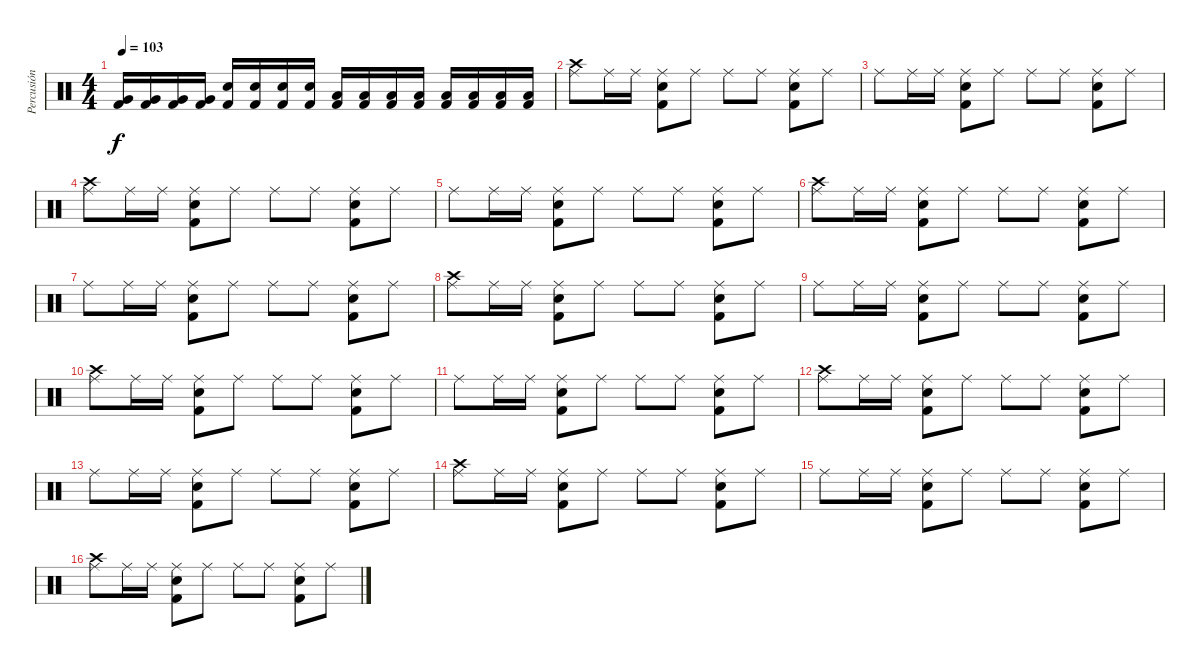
\track ("Percusión" "Percusión") {instrument percussion}
\staff {score}
\articulation defaults
\ts (4 4)
\tempo 103
\clef neutral
\ks c
("Very Low Tom (hit)" "Kick (hit) 2").16{dy f} ("Very Low Tom (hit)" "Kick (hit) 2").16 ("Very Low Tom (hit)" "Kick (hit) 2").16 ("Very Low Tom (hit)" "Kick (hit) 2").16 ("Snare (hit) 2" "Kick (hit) 2").16 ("Snare (hit) 2" "Kick (hit) 2").16 ("Snare (hit) 2" "Kick (hit) 2").16 ("Snare (hit) 2" "Kick (hit) 2").16 ("Low Tom (hit)" "Kick (hit) 2").16 ("Low Tom (hit)" "Kick (hit) 2").16 ("Low Tom (hit)" "Kick (hit) 2").16 ("Low Tom (hit)" "Kick (hit) 2").16 ("Low Floor Tom (hit)" "Kick (hit) 2").16 ("Low Floor Tom (hit)" "Kick (hit) 2").16 ("Low Floor Tom (hit)" "Kick (hit) 2").16 ("Low Floor Tom (hit)" "Kick (hit) 2").16 |
("Ride (middle)" "Crash high (hit)").8 "Ride (middle)".16 "Ride (middle)".16 ("Ride (middle)" "Snare (hit) 2" "Kick (hit) 2").8 "Ride (middle)".8 "Ride (middle)".8 "Ride (middle)".8 ("Ride (middle)" "Snare (hit) 2" "Kick (hit) 2").8 "Ride (middle)".8 |
"Ride (middle)".8 "Ride (middle)".16 "Ride (middle)".16 ("Ride (middle)" "Snare (hit) 2" "Kick (hit) 2").8 "Ride (middle)".8 "Ride (middle)".8 "Ride (middle)".8 ("Ride (middle)" "Snare (hit) 2" "Kick (hit) 2").8 "Ride (middle)".8 |
("Ride (middle)" "Crash high (hit)").8 "Ride (middle)".16 "Ride (middle)".16 ("Ride (middle)" "Snare (hit) 2" "Kick (hit) 2").8 "Ride (middle)".8 "Ride (middle)".8 "Ride (middle)".8 ("Ride (middle)" "Snare (hit) 2" "Kick (hit) 2").8 "Ride (middle)".8 |
"Ride (middle)".8 "Ride (middle)".16 "Ride (middle)".16 ("Ride (middle)" "Snare (hit) 2" "Kick (hit) 2").8 "Ride (middle)".8 "Ride (middle)".8 "Ride (middle)".8 ("Ride (middle)" "Snare (hit) 2" "Kick (hit) 2").8 "Ride (middle)".8 |
("Ride (middle)" "Crash high (hit)").8 "Ride (middle)".16 "Ride (middle)".16 ("Ride (middle)" "Snare (hit) 2" "Kick (hit) 2").8 "Ride (middle)".8 "Ride (middle)".8 "Ride (middle)".8 ("Ride (middle)" "Snare (hit) 2" "Kick (hit) 2").8 "Ride (middle)".8 |
"Ride (middle)".8 "Ride (middle)".16 "Ride (middle)".16 ("Ride (middle)" "Snare (hit) 2" "Kick (hit) 2").8 "Ride (middle)".8 "Ride (middle)".8 "Ride (middle)".8 ("Ride (middle)" "Snare (hit) 2" "Kick (hit) 2").8 "Ride (middle)".8 |
("Ride (middle)" "Crash high (hit)").8 "Ride (middle)".16 "Ride (middle)".16 ("Ride (middle)" "Snare (hit) 2" "Kick (hit) 2").8 "Ride (middle)".8 "Ride (middle)".8 "Ride (middle)".8 ("Ride (middle)" "Snare (hit) 2" "Kick (hit) 2").8 "Ride (middle)".8 |
"Ride (middle)".8 "Ride (middle)".16 "Ride (middle)".16 ("Ride (middle)" "Snare (hit) 2" "Kick (hit) 2").8 "Ride (middle)".8 "Ride (middle)".8 "Ride (middle)".8 ("Ride (middle)" "Snare (hit) 2" "Kick (hit) 2").8 "Ride (middle)".8 |
("Ride (middle)" "Crash high (hit)").8 "Ride (middle)".16 "Ride (middle)".16 ("Ride (middle)" "Snare (hit) 2" "Kick (hit) 2").8 "Ride (middle)".8 "Ride (middle)".8 "Ride (middle)".8 ("Ride (middle)" "Snare (hit) 2" "Kick (hit) 2").8 "Ride (middle)".8 |
"Ride (middle)".8 "Ride (middle)".16 "Ride (middle)".16 ("Ride (middle)" "Snare (hit) 2" "Kick (hit) 2").8 "Ride (middle)".8 "Ride (middle)".8 "Ride (middle)".8 ("Ride (middle)" "Snare (hit) 2" "Kick (hit) 2").8 "Ride (middle)".8 |
("Ride (middle)" "Crash high (hit)").8 "Ride (middle)".16 "Ride (middle)".16 ("Ride (middle)" "Snare (hit) 2" "Kick (hit) 2").8 "Ride (middle)".8 "Ride (middle)".8 "Ride (middle)".8 ("Ride (middle)" "Snare (hit) 2" "Kick (hit) 2").8 "Ride (middle)".8 |
"Ride (middle)".8 "Ride (middle)".16 "Ride (middle)".16 ("Ride (middle)" "Snare (hit) 2" "Kick (hit) 2").8 "Ride (middle)".8 "Ride (middle)".8 "Ride (middle)".8 ("Ride (middle)" "Snare (hit) 2" "Kick (hit) 2").8 "Ride (middle)".8 |
("Ride (middle)" "Crash high (hit)").8 "Ride (middle)".16 "Ride (middle)".16 ("Ride (middle)" "Snare (hit) 2" "Kick (hit) 2").8 "Ride (middle)".8 "Ride (middle)".8 "Ride (middle)".8 ("Ride (middle)" "Snare (hit) 2" "Kick (hit) 2").8 "Ride (middle)".8 |
"Ride (middle)".8 "Ride (middle)".16 "Ride (middle)".16 ("Ride (middle)" "Snare (hit) 2" "Kick (hit) 2").8 "Ride (middle)".8 "Ride (middle)".8 "Ride (middle)".8 ("Ride (middle)" "Snare (hit) 2" "Kick (hit) 2").8 "Ride (middle)".8 |
("Ride (middle)" "Crash high (hit)").8 "Ride (middle)".16 "Ride (middle)".16 ("Ride (middle)" "Snare (hit) 2" "Kick (hit) 2").8 "Ride (middle)".8 "Ride (middle)".8 "Ride (middle)".8 ("Ride (middle)" "Snare (hit) 2" "Kick (hit) 2").8 "Ride (middle)".8
